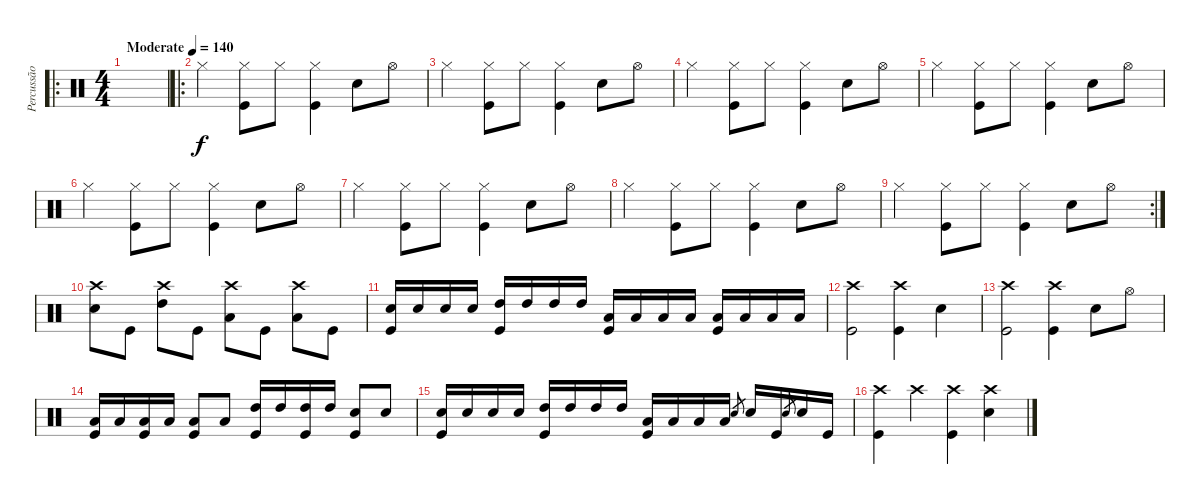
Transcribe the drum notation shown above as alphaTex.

\track ("Percussão" "Percussão") {instrument percussion}
\staff {score}
\articulation defaults
\ro
\ts (4 4)
\tempo (140 "Moderate")
\clef neutral
\ks c
|
\ro "Hi-Hat (closed)".4
("Hi-Hat (closed)" "Kick (hit)").8 "Hi-Hat (closed)".8 ("Hi-Hat (closed)" "Kick (hit)").4 "Electric Snare (hit)".8 "Hi-Hat (open)".8 |
"Hi-Hat (closed)".4 ("Hi-Hat (closed)" "Kick (hit)").8 "Hi-Hat (closed)".8 ("Hi-Hat (closed)" "Kick (hit)").4 "Electric Snare (hit)".8 "Hi-Hat (open)".8 |
"Hi-Hat (closed)".4 ("Hi-Hat (closed)" "Kick (hit)").8 "Hi-Hat (closed)".8 ("Hi-Hat (closed)" "Kick (hit)").4 "Electric Snare (hit)".8 "Hi-Hat (open)".8 |
"Hi-Hat (closed)".4 ("Hi-Hat (closed)" "Kick (hit)").8 "Hi-Hat (closed)".8 ("Hi-Hat (closed)" "Kick (hit)").4 "Electric Snare (hit)".8 "Hi-Hat (open)".8 |
"Hi-Hat (closed)".4 ("Hi-Hat (closed)" "Kick (hit)").8 "Hi-Hat (closed)".8 ("Hi-Hat (closed)" "Kick (hit)").4 "Electric Snare (hit)".8 "Hi-Hat (open)".8 |
"Hi-Hat (closed)".4 ("Hi-Hat (closed)" "Kick (hit)").8 "Hi-Hat (closed)".8 ("Hi-Hat (closed)" "Kick (hit)").4 "Electric Snare (hit)".8 "Hi-Hat (open)".8 |
"Hi-Hat (closed)".4 ("Hi-Hat (closed)" "Kick (hit)").8 "Hi-Hat (closed)".8 ("Hi-Hat (closed)" "Kick (hit)").4 "Electric Snare (hit)".8 "Hi-Hat (open)".8 |
\rc 2 "Hi-Hat (closed)".4
("Hi-Hat (closed)" "Kick (hit)").8 "Hi-Hat (closed)".8 ("Hi-Hat (closed)" "Kick (hit)").4 "Electric Snare (hit)".8 "Hi-Hat (open)".8 |
("Crash high (hit)" "Electric Snare (hit)").8 "Kick (hit)".8 ("Crash high (hit)" "High Tom (hit)").8 "Kick (hit)".8 ("Crash high (hit)" "Low Tom (hit)").8 "Kick (hit)".8 ("Crash high (hit)" "Low Floor Tom (hit)").8 "Kick (hit)".8 |
("Electric Snare (hit)" "Kick (hit)").16 "Electric Snare (hit)".16 "Electric Snare (hit)".16 "Electric Snare (hit)".16 ("High Tom (hit)" "Kick (hit)").16 "High Tom (hit)".16 "High Tom (hit)".16 "High Tom (hit)".16 ("Low Tom (hit)" "Kick (hit)").16 "Low Tom (hit)".16 "Low Tom (hit)".16 "Low Tom (hit)".16 ("Low Floor Tom (hit)" "Kick (hit)").16 "Low Floor Tom (hit)".16 "Low Floor Tom (hit)".16 "Low Floor Tom (hit)".16 |
("Crash high (hit)" "Kick (hit)").2 ("Crash high (hit)" "Kick (hit)").4 "Electric Snare (hit)".4 |
("Crash high (hit)" "Kick (hit)").2 ("Crash high (hit)" "Kick (hit)").4 "Electric Snare (hit)".8 "Hi-Hat (open)".8 |
("Low Floor Tom (hit)" "Kick (hit)").16 "Low Floor Tom (hit)".16 ("Low Floor Tom (hit)" "Kick (hit)").16 "Low Floor Tom (hit)".16 ("Low Tom (hit)" "Kick (hit)").8 "Low Tom (hit)".8 ("High Tom (hit)" "Kick (hit)").16 "High Tom (hit)".16 ("High Tom (hit)" "Kick (hit)").16 "High Tom (hit)".16 ("Electric Snare (hit)" "Kick (hit)").8 "Electric Snare (hit)".8 |
("Electric Snare (hit)" "Kick (hit)").16 "Electric Snare (hit)".16 "Electric Snare (hit)".16 "Electric Snare (hit)".16 ("High Tom (hit)" "Kick (hit)").16 "High Tom (hit)".16 "High Tom (hit)".16 "High Tom (hit)".16 ("Low Tom (hit)" "Kick (hit)").16 "Low Tom (hit)".16 "Low Tom (hit)".16 "Low Tom (hit)".16 "Electric Snare (hit)".8{gr} "Electric Snare (hit)".16 "Kick (hit)".16 "Electric Snare (hit)".8{gr} "Electric Snare (hit)".16 "Kick (hit)".16 |
("Crash high (hit)" "Kick (hit)").4 "Crash high (hit)".4 ("Crash high (hit)" "Kick (hit)").4 ("Crash high (hit)" "Electric Snare (hit)").4
